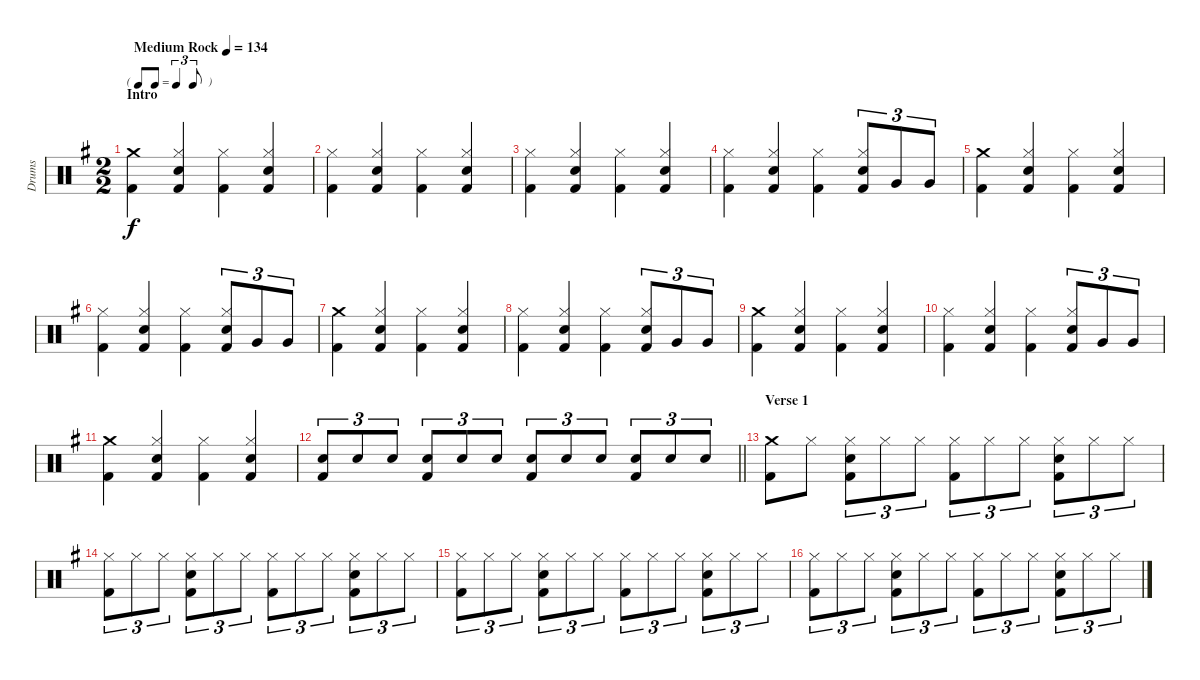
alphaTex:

\track ("Drums" "Drums") {instrument percussion}
\staff {score}
\articulation defaults
\ts (2 2)
\tf triplet8th
\section ("" "Intro")
\tempo (134 "Medium Rock")
\clef neutral
\ks g
("Crash medium (hit)" "Kick (hit) 2").4{dy f} ("Hi-Hat (closed)" "Snare (hit) 2" "Kick (hit) 2").4 ("Hi-Hat (closed)" "Kick (hit) 2").4 ("Hi-Hat (closed)" "Snare (hit) 2" "Kick (hit) 2").4 |
("Hi-Hat (closed)" "Kick (hit) 2").4 ("Hi-Hat (closed)" "Snare (hit) 2" "Kick (hit) 2").4 ("Hi-Hat (closed)" "Kick (hit) 2").4 ("Hi-Hat (closed)" "Snare (hit) 2" "Kick (hit) 2").4 |
("Hi-Hat (closed)" "Kick (hit) 2").4 ("Hi-Hat (closed)" "Snare (hit) 2" "Kick (hit) 2").4 ("Hi-Hat (closed)" "Kick (hit) 2").4 ("Hi-Hat (closed)" "Snare (hit) 2" "Kick (hit) 2").4 |
("Hi-Hat (closed)" "Kick (hit) 2").4 ("Hi-Hat (closed)" "Snare (hit) 2" "Kick (hit) 2").4 ("Hi-Hat (closed)" "Kick (hit) 2").4 ("Hi-Hat (closed)" "Snare (hit) 2" "Kick (hit) 2").8{tu (3 2)} "Very Low Tom (hit)".8{tu (3 2)} "Very Low Tom (hit)".8{tu (3 2)} |
("Crash medium (hit)" "Kick (hit) 2").4 ("Hi-Hat (closed)" "Snare (hit) 2" "Kick (hit) 2").4 ("Hi-Hat (closed)" "Kick (hit) 2").4 ("Hi-Hat (closed)" "Snare (hit) 2" "Kick (hit) 2").4 |
("Hi-Hat (closed)" "Kick (hit) 2").4 ("Hi-Hat (closed)" "Snare (hit) 2" "Kick (hit) 2").4 ("Hi-Hat (closed)" "Kick (hit) 2").4 ("Hi-Hat (closed)" "Snare (hit) 2" "Kick (hit) 2").8{tu (3 2)} "Very Low Tom (hit)".8{tu (3 2)} "Very Low Tom (hit)".8{tu (3 2)} |
("Crash medium (hit)" "Kick (hit) 2").4 ("Hi-Hat (closed)" "Snare (hit) 2" "Kick (hit) 2").4 ("Hi-Hat (closed)" "Kick (hit) 2").4 ("Hi-Hat (closed)" "Snare (hit) 2" "Kick (hit) 2").4 |
("Hi-Hat (closed)" "Kick (hit) 2").4 ("Hi-Hat (closed)" "Snare (hit) 2" "Kick (hit) 2").4 ("Hi-Hat (closed)" "Kick (hit) 2").4 ("Hi-Hat (closed)" "Snare (hit) 2" "Kick (hit) 2").8{tu (3 2)} "Very Low Tom (hit)".8{tu (3 2)} "Very Low Tom (hit)".8{tu (3 2)} |
("Crash medium (hit)" "Kick (hit) 2").4 ("Hi-Hat (closed)" "Snare (hit) 2" "Kick (hit) 2").4 ("Hi-Hat (closed)" "Kick (hit) 2").4 ("Hi-Hat (closed)" "Snare (hit) 2" "Kick (hit) 2").4 |
("Hi-Hat (closed)" "Kick (hit) 2").4 ("Hi-Hat (closed)" "Snare (hit) 2" "Kick (hit) 2").4 ("Hi-Hat (closed)" "Kick (hit) 2").4 ("Hi-Hat (closed)" "Snare (hit) 2" "Kick (hit) 2").8{tu (3 2)} "Very Low Tom (hit)".8{tu (3 2)} "Very Low Tom (hit)".8{tu (3 2)} |
("Crash medium (hit)" "Kick (hit) 2").4 ("Hi-Hat (closed)" "Snare (hit) 2" "Kick (hit) 2").4 ("Hi-Hat (closed)" "Kick (hit) 2").4 ("Hi-Hat (closed)" "Snare (hit) 2" "Kick (hit) 2").4 |
\barLineRight lightlight
("Snare (hit) 2" "Kick (hit) 2").8{tu (3 2)} "Snare (hit) 2".8{tu (3 2)} "Snare (hit) 2".8{tu (3 2) beam split} ("Snare (hit) 2" "Kick (hit) 2").8{tu (3 2)} "Snare (hit) 2".8{tu (3 2)} "Snare (hit) 2".8{tu (3 2)} ("Snare (hit) 2" "Kick (hit) 2").8{tu (3 2)} "Snare (hit) 2".8{tu (3 2)} "Snare (hit) 2".8{tu (3 2) beam split} ("Snare (hit) 2" "Kick (hit) 2").8{tu (3 2)} "Snare (hit) 2".8{tu (3 2)} "Snare (hit) 2".8{tu (3 2)} |
\section ("" "Verse 1")
("Crash medium (hit)" "Kick (hit) 2").8 "Hi-Hat (closed)".8{beam split} ("Hi-Hat (closed)" "Snare (hit) 2" "Kick (hit) 2").8{tu (3 2)} "Hi-Hat (closed)".8{tu (3 2)} "Hi-Hat (closed)".8{tu (3 2) beam split} ("Hi-Hat (closed)" "Kick (hit) 2").8{tu (3 2)} "Hi-Hat (closed)".8{tu (3 2)} "Hi-Hat (closed)".8{tu (3 2) beam split} ("Hi-Hat (closed)" "Snare (hit) 2" "Kick (hit) 2").8{tu (3 2)} "Hi-Hat (closed)".8{tu (3 2)} "Hi-Hat (closed)".8{tu (3 2)} |
("Hi-Hat (closed)" "Kick (hit) 2").8{tu (3 2)} "Hi-Hat (closed)".8{tu (3 2)} "Hi-Hat (closed)".8{tu (3 2) beam split} ("Hi-Hat (closed)" "Snare (hit) 2" "Kick (hit) 2").8{tu (3 2)} "Hi-Hat (closed)".8{tu (3 2)} "Hi-Hat (closed)".8{tu (3 2) beam split} ("Hi-Hat (closed)" "Kick (hit) 2").8{tu (3 2)} "Hi-Hat (closed)".8{tu (3 2)} "Hi-Hat (closed)".8{tu (3 2) beam split} ("Hi-Hat (closed)" "Snare (hit) 2" "Kick (hit) 2").8{tu (3 2)} "Hi-Hat (closed)".8{tu (3 2)} "Hi-Hat (closed)".8{tu (3 2)} |
("Hi-Hat (closed)" "Kick (hit) 2").8{tu (3 2)} "Hi-Hat (closed)".8{tu (3 2)} "Hi-Hat (closed)".8{tu (3 2) beam split} ("Hi-Hat (closed)" "Snare (hit) 2" "Kick (hit) 2").8{tu (3 2)} "Hi-Hat (closed)".8{tu (3 2)} "Hi-Hat (closed)".8{tu (3 2) beam split} ("Hi-Hat (closed)" "Kick (hit) 2").8{tu (3 2)} "Hi-Hat (closed)".8{tu (3 2)} "Hi-Hat (closed)".8{tu (3 2) beam split} ("Hi-Hat (closed)" "Snare (hit) 2" "Kick (hit) 2").8{tu (3 2)} "Hi-Hat (closed)".8{tu (3 2)} "Hi-Hat (closed)".8{tu (3 2)} |
("Hi-Hat (closed)" "Kick (hit) 2").8{tu (3 2)} "Hi-Hat (closed)".8{tu (3 2)} "Hi-Hat (closed)".8{tu (3 2) beam split} ("Hi-Hat (closed)" "Snare (hit) 2" "Kick (hit) 2").8{tu (3 2)} "Hi-Hat (closed)".8{tu (3 2)} "Hi-Hat (closed)".8{tu (3 2) beam split} ("Hi-Hat (closed)" "Kick (hit) 2").8{tu (3 2)} "Hi-Hat (closed)".8{tu (3 2)} "Hi-Hat (closed)".8{tu (3 2) beam split} ("Hi-Hat (closed)" "Snare (hit) 2" "Kick (hit) 2").8{tu (3 2)} "Hi-Hat (closed)".8{tu (3 2)} "Hi-Hat (closed)".8{tu (3 2)}
